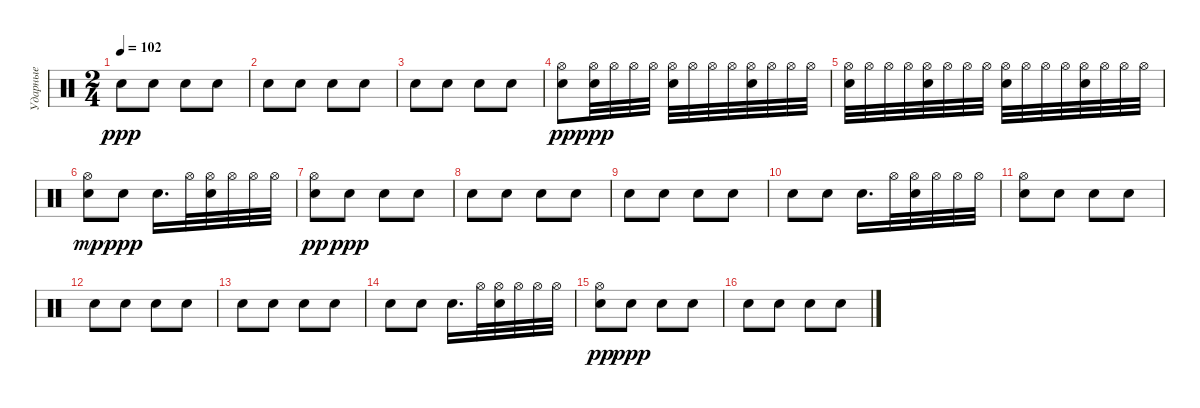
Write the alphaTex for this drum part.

\track ("Ударные" "Ударные") {instrument percussion}
\staff {score}
\articulation defaults
\ts (2 4)
\tempo 102
\clef neutral
\ks c "Hand Clap (hit)".8{dy ppp} "Hand Clap (hit)".8 "Hand Clap (hit)".8 "Hand Clap (hit)".8
|
"Hand Clap (hit)".8 "Hand Clap (hit)".8 "Hand Clap (hit)".8 "Hand Clap (hit)".8 |
"Hand Clap (hit)".8 "Hand Clap (hit)".8 "Hand Clap (hit)".8 "Hand Clap (hit)".8 |
("Hand Clap (hit)" "Hi-Hat (open)").8{dy pp} ("Hi-Hat (open)" "Hand Clap (hit)").32{dy ppp} "Hi-Hat (open)".32 "Hi-Hat (open)".32 "Hi-Hat (open)".32 ("Hi-Hat (open)" "Hand Clap (hit)").32 "Hi-Hat (open)".32 "Hi-Hat (open)".32 "Hi-Hat (open)".32 ("Hi-Hat (open)" "Hand Clap (hit)").32 "Hi-Hat (open)".32 "Hi-Hat (open)".32 "Hi-Hat (open)".32 |
("Hi-Hat (open)" "Hand Clap (hit)").32 "Hi-Hat (open)".32 "Hi-Hat (open)".32 "Hi-Hat (open)".32 ("Hand Clap (hit)" "Hi-Hat (open)").32 "Hi-Hat (open)".32 "Hi-Hat (open)".32 "Hi-Hat (open)".32 ("Hi-Hat (open)" "Hand Clap (hit)").32 "Hi-Hat (open)".32 "Hi-Hat (open)".32 "Hi-Hat (open)".32 ("Hi-Hat (open)" "Hand Clap (hit)").32 "Hi-Hat (open)".32 "Hi-Hat (open)".32 "Hi-Hat (open)".32 |
("Hand Clap (hit)" "Hi-Hat (open)").8{dy mp} "Hand Clap (hit)".8{dy ppp} "Hand Clap (hit)".16{d} "Hi-Hat (open)".32 ("Hi-Hat (open)" "Hand Clap (hit)").32 "Hi-Hat (open)".32 "Hi-Hat (open)".32 "Hi-Hat (open)".32 |
("Hand Clap (hit)" "Hi-Hat (open)").8{dy pp} "Hand Clap (hit)".8{dy ppp} "Hand Clap (hit)".8 "Hand Clap (hit)".8 |
"Hand Clap (hit)".8 "Hand Clap (hit)".8 "Hand Clap (hit)".8 "Hand Clap (hit)".8 |
"Hand Clap (hit)".8 "Hand Clap (hit)".8 "Hand Clap (hit)".8 "Hand Clap (hit)".8 |
"Hand Clap (hit)".8 "Hand Clap (hit)".8 "Hand Clap (hit)".16{d} "Hi-Hat (open)".32 ("Hand Clap (hit)" "Hi-Hat (open)").32 "Hi-Hat (open)".32 "Hi-Hat (open)".32 "Hi-Hat (open)".32 |
("Hi-Hat (open)" "Hand Clap (hit)").8 "Hand Clap (hit)".8 "Hand Clap (hit)".8 "Hand Clap (hit)".8 |
"Hand Clap (hit)".8 "Hand Clap (hit)".8 "Hand Clap (hit)".8 "Hand Clap (hit)".8 |
"Hand Clap (hit)".8 "Hand Clap (hit)".8 "Hand Clap (hit)".8 "Hand Clap (hit)".8 |
"Hand Clap (hit)".8 "Hand Clap (hit)".8 "Hand Clap (hit)".16{d} "Hi-Hat (open)".32 ("Hi-Hat (open)" "Hand Clap (hit)").32 "Hi-Hat (open)".32 "Hi-Hat (open)".32 "Hi-Hat (open)".32 |
("Hand Clap (hit)" "Hi-Hat (open)").8{dy pp} "Hand Clap (hit)".8{dy ppp} "Hand Clap (hit)".8 "Hand Clap (hit)".8 |
"Hand Clap (hit)".8 "Hand Clap (hit)".8 "Hand Clap (hit)".8 "Hand Clap (hit)".8
